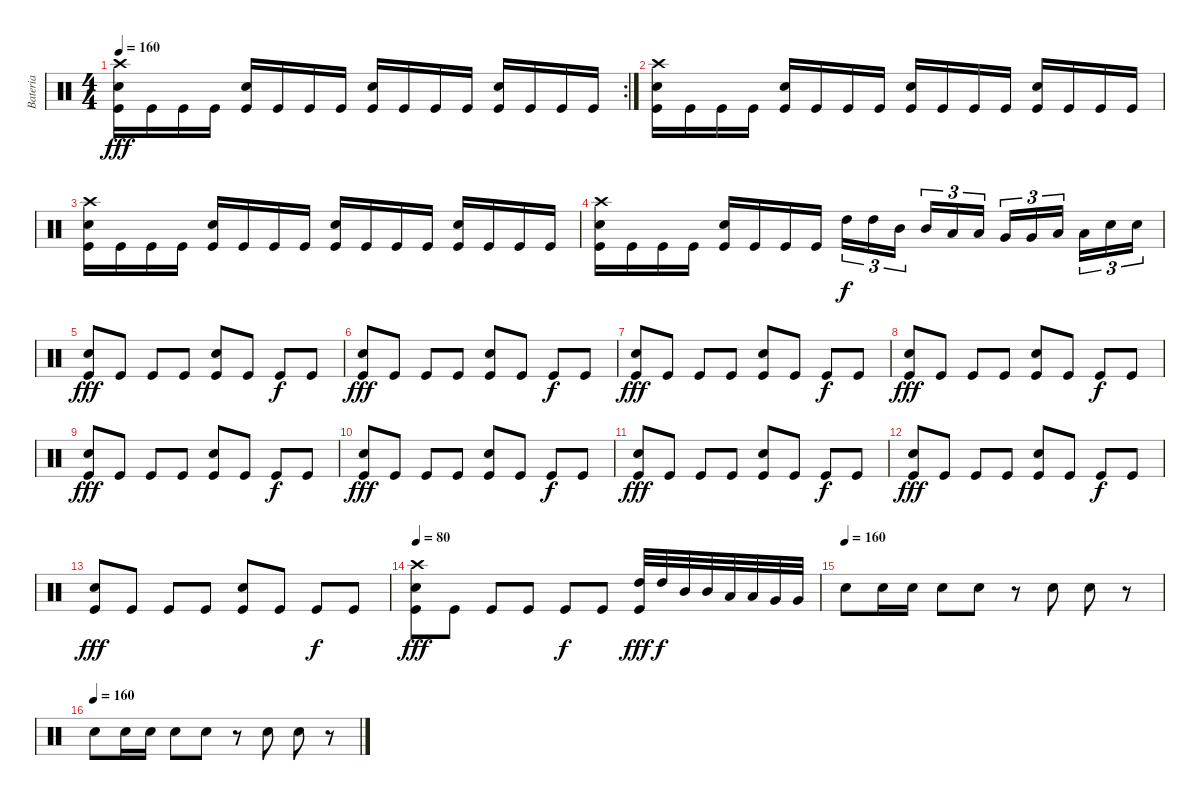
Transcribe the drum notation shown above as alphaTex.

\track ("Bateria" "Bateria") {instrument percussion}
\staff {score}
\articulation defaults
\rc 2
\ts (4 4)
\tempo 160
\clef neutral
\ks c
("Crash high (hit)" "Electric Snare (hit)" "Kick (hit)").16{dy fff} "Kick (hit)".16 "Kick (hit)".16 "Kick (hit)".16 ("Electric Snare (hit)" "Kick (hit)").16 "Kick (hit)".16 "Kick (hit)".16 "Kick (hit)".16 ("Electric Snare (hit)" "Kick (hit)").16 "Kick (hit)".16 "Kick (hit)".16 "Kick (hit)".16 ("Electric Snare (hit)" "Kick (hit)").16 "Kick (hit)".16 "Kick (hit)".16 "Kick (hit)".16 |
("Crash high (hit)" "Electric Snare (hit)" "Kick (hit)").16 "Kick (hit)".16 "Kick (hit)".16 "Kick (hit)".16 ("Electric Snare (hit)" "Kick (hit)").16 "Kick (hit)".16 "Kick (hit)".16 "Kick (hit)".16 ("Electric Snare (hit)" "Kick (hit)").16 "Kick (hit)".16 "Kick (hit)".16 "Kick (hit)".16 ("Electric Snare (hit)" "Kick (hit)").16 "Kick (hit)".16 "Kick (hit)".16 "Kick (hit)".16 |
("Crash high (hit)" "Electric Snare (hit)" "Kick (hit)").16 "Kick (hit)".16 "Kick (hit)".16 "Kick (hit)".16 ("Electric Snare (hit)" "Kick (hit)").16 "Kick (hit)".16 "Kick (hit)".16 "Kick (hit)".16 ("Electric Snare (hit)" "Kick (hit)").16 "Kick (hit)".16 "Kick (hit)".16 "Kick (hit)".16 ("Electric Snare (hit)" "Kick (hit)").16 "Kick (hit)".16 "Kick (hit)".16 "Kick (hit)".16 |
("Crash high (hit)" "Electric Snare (hit)" "Kick (hit)").16 "Kick (hit)".16 "Kick (hit)".16 "Kick (hit)".16 ("Electric Snare (hit)" "Kick (hit)").16 "Kick (hit)".16 "Kick (hit)".16 "Kick (hit)".16 "High Tom (hit)".16{tu (3 2) dy f} "High Tom (hit)".16{tu (3 2)} "Mid Tom (hit)".16{tu (3 2)} "Mid Tom (hit)".16{tu (3 2)} "Low Tom (hit)".16{tu (3 2)} "Low Tom (hit)".16{tu (3 2)} "Very Low Tom (hit)".16{tu (3 2)} "Very Low Tom (hit)".16{tu (3 2)} "Low Floor Tom (hit)".16{tu (3 2)} "Low Floor Tom (hit)".16{tu (3 2)} "Electric Snare (hit)".16{tu (3 2)} "Electric Snare (hit)".16{tu (3 2)} |
("Electric Snare (hit)" "Kick (hit)").8{dy fff} "Kick (hit)".8 "Kick (hit)".8 "Kick (hit)".8 ("Electric Snare (hit)" "Kick (hit)").8 "Kick (hit)".8 "Kick (hit)".8{dy f} "Kick (hit)".8 |
("Electric Snare (hit)" "Kick (hit)").8{dy fff} "Kick (hit)".8 "Kick (hit)".8 "Kick (hit)".8 ("Electric Snare (hit)" "Kick (hit)").8 "Kick (hit)".8 "Kick (hit)".8{dy f} "Kick (hit)".8 |
("Electric Snare (hit)" "Kick (hit)").8{dy fff} "Kick (hit)".8 "Kick (hit)".8 "Kick (hit)".8 ("Electric Snare (hit)" "Kick (hit)").8 "Kick (hit)".8 "Kick (hit)".8{dy f} "Kick (hit)".8 |
("Electric Snare (hit)" "Kick (hit)").8{dy fff} "Kick (hit)".8 "Kick (hit)".8 "Kick (hit)".8 ("Electric Snare (hit)" "Kick (hit)").8 "Kick (hit)".8 "Kick (hit)".8{dy f} "Kick (hit)".8 |
("Electric Snare (hit)" "Kick (hit)").8{dy fff} "Kick (hit)".8 "Kick (hit)".8 "Kick (hit)".8 ("Electric Snare (hit)" "Kick (hit)").8 "Kick (hit)".8 "Kick (hit)".8{dy f} "Kick (hit)".8 |
("Electric Snare (hit)" "Kick (hit)").8{dy fff} "Kick (hit)".8 "Kick (hit)".8 "Kick (hit)".8 ("Electric Snare (hit)" "Kick (hit)").8 "Kick (hit)".8 "Kick (hit)".8{dy f} "Kick (hit)".8 |
("Electric Snare (hit)" "Kick (hit)").8{dy fff} "Kick (hit)".8 "Kick (hit)".8 "Kick (hit)".8 ("Electric Snare (hit)" "Kick (hit)").8 "Kick (hit)".8 "Kick (hit)".8{dy f} "Kick (hit)".8 |
("Electric Snare (hit)" "Kick (hit)").8{dy fff} "Kick (hit)".8 "Kick (hit)".8 "Kick (hit)".8 ("Electric Snare (hit)" "Kick (hit)").8 "Kick (hit)".8 "Kick (hit)".8{dy f} "Kick (hit)".8 |
("Electric Snare (hit)" "Kick (hit)").8{dy fff} "Kick (hit)".8 "Kick (hit)".8 "Kick (hit)".8 ("Electric Snare (hit)" "Kick (hit)").8 "Kick (hit)".8 "Kick (hit)".8{dy f} "Kick (hit)".8 |
\tempo 80
("Crash high (hit)" "Electric Snare (hit)" "Kick (hit)").8{dy fff} "Kick (hit)".8 "Kick (hit)".8 "Kick (hit)".8 "Kick (hit)".8{dy f} "Kick (hit)".8 ("High Tom (hit)" "Kick (hit)").32{dy fff} "High Tom (hit)".32{dy f} "Mid Tom (hit)".32 "Mid Tom (hit)".32 "Low Tom (hit)".32 "Low Tom (hit)".32 "Very Low Tom (hit)".32 "Very Low Tom (hit)".32 |
\tempo (160)
"Electric Snare (hit)".8 "Electric Snare (hit)".16 "Electric Snare (hit)".16 "Electric Snare (hit)".8 "Electric Snare (hit)".8 r.8 "Electric Snare (hit)".8 "Electric Snare (hit)".8 r.8 |
\tempo (160)
"Electric Snare (hit)".8 "Electric Snare (hit)".16 "Electric Snare (hit)".16 "Electric Snare (hit)".8 "Electric Snare (hit)".8 r.8 "Electric Snare (hit)".8 "Electric Snare (hit)".8 r.8
